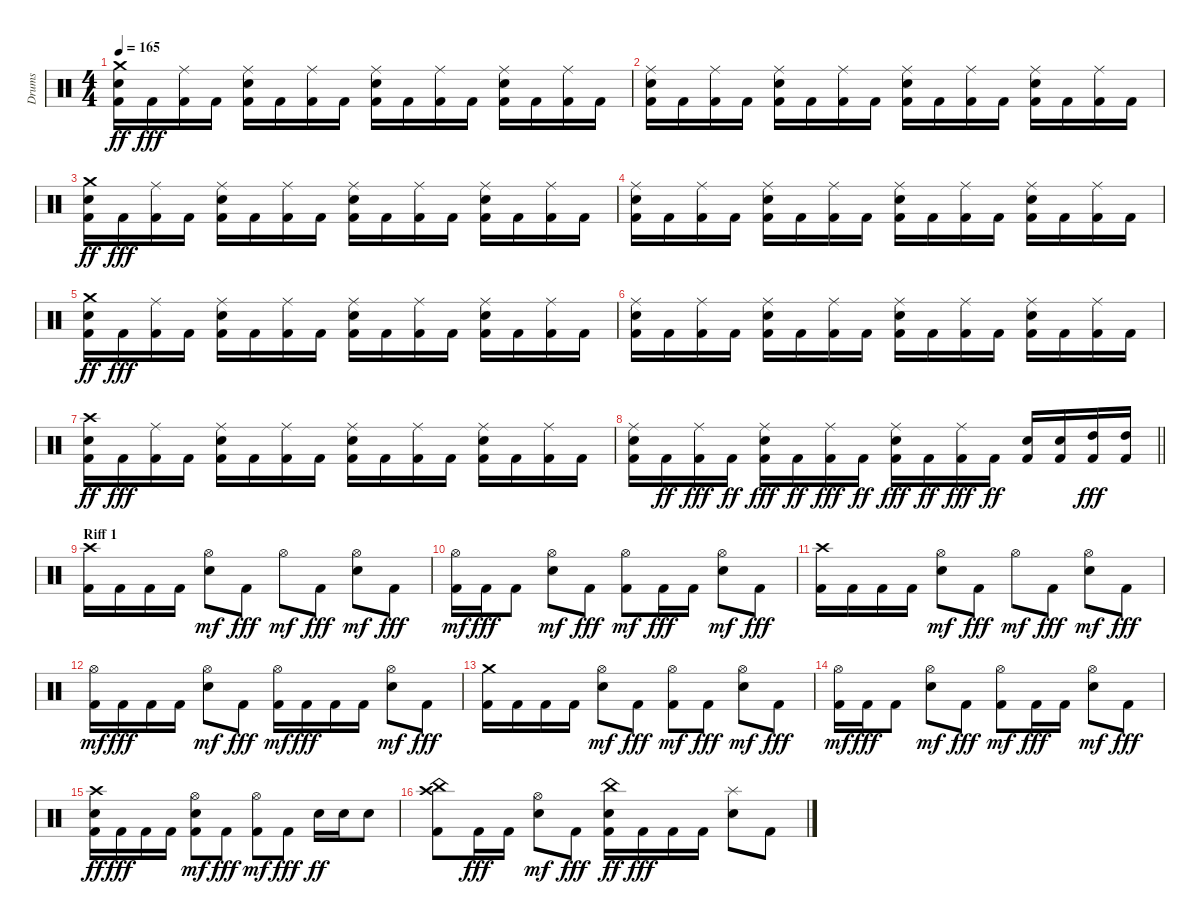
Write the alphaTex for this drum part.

\track ("Drums" "Drums") {instrument percussion}
\staff {score}
\articulation defaults
\ts (4 4)
\tempo 165
\clef neutral
\ks c
("Kick (hit) 2" "Snare (hit) 2" "Crash medium (hit)").16{dy ff} "Kick (hit) 2".16{dy fff} ("Kick (hit) 2" "Ride (middle)").16 "Kick (hit) 2".16 ("Kick (hit) 2" "Snare (hit) 2" "Ride (middle)").16 "Kick (hit) 2".16 ("Kick (hit) 2" "Ride (middle)").16 "Kick (hit) 2".16 ("Kick (hit) 2" "Snare (hit) 2" "Ride (middle)").16 "Kick (hit) 2".16 ("Kick (hit) 2" "Ride (middle)").16 "Kick (hit) 2".16 ("Kick (hit) 2" "Snare (hit) 2" "Ride (middle)").16 "Kick (hit) 2".16 ("Kick (hit) 2" "Ride (middle)").16 "Kick (hit) 2".16 |
("Kick (hit) 2" "Snare (hit) 2" "Ride (middle)").16 "Kick (hit) 2".16 ("Kick (hit) 2" "Ride (middle)").16 "Kick (hit) 2".16 ("Kick (hit) 2" "Snare (hit) 2" "Ride (middle)").16 "Kick (hit) 2".16 ("Kick (hit) 2" "Ride (middle)").16 "Kick (hit) 2".16 ("Kick (hit) 2" "Snare (hit) 2" "Ride (middle)").16 "Kick (hit) 2".16 ("Kick (hit) 2" "Ride (middle)").16 "Kick (hit) 2".16 ("Kick (hit) 2" "Snare (hit) 2" "Ride (middle)").16 "Kick (hit) 2".16 ("Kick (hit) 2" "Ride (middle)").16 "Kick (hit) 2".16 |
("Kick (hit) 2" "Snare (hit) 2" "Crash medium (hit)").16{dy ff} "Kick (hit) 2".16{dy fff} ("Kick (hit) 2" "Ride (middle)").16 "Kick (hit) 2".16 ("Kick (hit) 2" "Snare (hit) 2" "Ride (middle)").16 "Kick (hit) 2".16 ("Kick (hit) 2" "Ride (middle)").16 "Kick (hit) 2".16 ("Kick (hit) 2" "Snare (hit) 2" "Ride (middle)").16 "Kick (hit) 2".16 ("Kick (hit) 2" "Ride (middle)").16 "Kick (hit) 2".16 ("Kick (hit) 2" "Snare (hit) 2" "Ride (middle)").16 "Kick (hit) 2".16 ("Kick (hit) 2" "Ride (middle)").16 "Kick (hit) 2".16 |
("Kick (hit) 2" "Snare (hit) 2" "Ride (middle)").16 "Kick (hit) 2".16 ("Kick (hit) 2" "Ride (middle)").16 "Kick (hit) 2".16 ("Kick (hit) 2" "Snare (hit) 2" "Ride (middle)").16 "Kick (hit) 2".16 ("Kick (hit) 2" "Ride (middle)").16 "Kick (hit) 2".16 ("Kick (hit) 2" "Snare (hit) 2" "Ride (middle)").16 "Kick (hit) 2".16 ("Kick (hit) 2" "Ride (middle)").16 "Kick (hit) 2".16 ("Kick (hit) 2" "Snare (hit) 2" "Ride (middle)").16 "Kick (hit) 2".16 ("Kick (hit) 2" "Ride (middle)").16 "Kick (hit) 2".16 |
("Kick (hit) 2" "Snare (hit) 2" "Crash medium (hit)").16{dy ff} "Kick (hit) 2".16{dy fff} ("Kick (hit) 2" "Ride (middle)").16 "Kick (hit) 2".16 ("Kick (hit) 2" "Snare (hit) 2" "Ride (middle)").16 "Kick (hit) 2".16 ("Kick (hit) 2" "Ride (middle)").16 "Kick (hit) 2".16 ("Kick (hit) 2" "Snare (hit) 2" "Ride (middle)").16 "Kick (hit) 2".16 ("Kick (hit) 2" "Ride (middle)").16 "Kick (hit) 2".16 ("Kick (hit) 2" "Snare (hit) 2" "Ride (middle)").16 "Kick (hit) 2".16 ("Kick (hit) 2" "Ride (middle)").16 "Kick (hit) 2".16 |
("Kick (hit) 2" "Snare (hit) 2" "Ride (middle)").16 "Kick (hit) 2".16 ("Kick (hit) 2" "Ride (middle)").16 "Kick (hit) 2".16 ("Kick (hit) 2" "Snare (hit) 2" "Ride (middle)").16 "Kick (hit) 2".16 ("Kick (hit) 2" "Ride (middle)").16 "Kick (hit) 2".16 ("Kick (hit) 2" "Snare (hit) 2" "Ride (middle)").16 "Kick (hit) 2".16 ("Kick (hit) 2" "Ride (middle)").16 "Kick (hit) 2".16 ("Kick (hit) 2" "Snare (hit) 2" "Ride (middle)").16 "Kick (hit) 2".16 ("Kick (hit) 2" "Ride (middle)").16 "Kick (hit) 2".16 |
("Kick (hit) 2" "Snare (hit) 2" "Crash high (hit)").16{dy ff} "Kick (hit) 2".16{dy fff} ("Kick (hit) 2" "Ride (middle)").16 "Kick (hit) 2".16 ("Kick (hit) 2" "Snare (hit) 2" "Ride (middle)").16 "Kick (hit) 2".16 ("Kick (hit) 2" "Ride (middle)").16 "Kick (hit) 2".16 ("Kick (hit) 2" "Snare (hit) 2" "Ride (middle)").16 "Kick (hit) 2".16 ("Kick (hit) 2" "Ride (middle)").16 "Kick (hit) 2".16 ("Kick (hit) 2" "Snare (hit) 2" "Ride (middle)").16 "Kick (hit) 2".16 ("Kick (hit) 2" "Ride (middle)").16 "Kick (hit) 2".16 |
\barLineRight lightlight
("Kick (hit) 2" "Snare (hit) 2" "Ride (middle)").16 "Kick (hit) 2".16{dy ff} ("Kick (hit) 2" "Ride (middle)").16{dy fff} "Kick (hit) 2".16{dy ff} ("Kick (hit) 2" "Snare (hit) 2" "Ride (middle)").16{dy fff} "Kick (hit) 2".16{dy ff} ("Kick (hit) 2" "Ride (middle)").16{dy fff} "Kick (hit) 2".16{dy ff} ("Kick (hit) 2" "Snare (hit) 2" "Ride (middle)").16{dy fff} "Kick (hit) 2".16{dy ff} ("Kick (hit) 2" "Ride (middle)").16{dy fff} "Kick (hit) 2".16{dy ff} ("Kick (hit) 2" "Snare (hit) 2").16 ("Kick (hit) 2" "Snare (hit) 2").16 ("Kick (hit) 2" "High Tom (hit)").16{dy fff} ("Kick (hit) 2" "High Tom (hit)").16 |
\section ("" "Riff 1")
("Kick (hit) 2" "Crash high (hit)").16 "Kick (hit) 2".16 "Kick (hit) 2".16 "Kick (hit) 2".16 ("Snare (hit) 2" "Hi-Hat (open)").8{dy mf} "Kick (hit) 2".8{dy fff} "Hi-Hat (open)".8{dy mf} "Kick (hit) 2".8{dy fff} ("Snare (hit) 2" "Hi-Hat (open)").8{dy mf} "Kick (hit) 2".8{dy fff} |
("Kick (hit) 2" "Hi-Hat (open)").16{dy mf} "Kick (hit) 2".16{dy fff} "Kick (hit) 2".8 ("Snare (hit) 2" "Hi-Hat (open)").8{dy mf} "Kick (hit) 2".8{dy fff} ("Kick (hit) 2" "Hi-Hat (open)").8{dy mf} "Kick (hit) 2".16{dy fff} "Kick (hit) 2".16 ("Snare (hit) 2" "Hi-Hat (open)").8{dy mf} "Kick (hit) 2".8{dy fff} |
("Kick (hit) 2" "Crash high (hit)").16 "Kick (hit) 2".16 "Kick (hit) 2".16 "Kick (hit) 2".16 ("Snare (hit) 2" "Hi-Hat (open)").8{dy mf} "Kick (hit) 2".8{dy fff} "Hi-Hat (open)".8{dy mf} "Kick (hit) 2".8{dy fff} ("Snare (hit) 2" "Hi-Hat (open)").8{dy mf} "Kick (hit) 2".8{dy fff} |
("Kick (hit) 2" "Hi-Hat (open)").16{dy mf} "Kick (hit) 2".16{dy fff} "Kick (hit) 2".16 "Kick (hit) 2".16 ("Snare (hit) 2" "Hi-Hat (open)").8{dy mf} "Kick (hit) 2".8{dy fff} ("Kick (hit) 2" "Hi-Hat (open)").16{dy mf} "Kick (hit) 2".16{dy fff} "Kick (hit) 2".16 "Kick (hit) 2".16 ("Snare (hit) 2" "Hi-Hat (open)").8{dy mf} "Kick (hit) 2".8{dy fff} |
("Kick (hit) 2" "Crash medium (hit)").16 "Kick (hit) 2".16 "Kick (hit) 2".16 "Kick (hit) 2".16 ("Snare (hit) 2" "Hi-Hat (open)").8{dy mf} "Kick (hit) 2".8{dy fff} ("Kick (hit) 2" "Hi-Hat (open)").8{dy mf} "Kick (hit) 2".8{dy fff} ("Snare (hit) 2" "Hi-Hat (open)").8{dy mf} "Kick (hit) 2".8{dy fff} |
("Kick (hit) 2" "Hi-Hat (open)").16{dy mf} "Kick (hit) 2".16{dy fff} "Kick (hit) 2".8 ("Snare (hit) 2" "Hi-Hat (open)").8{dy mf} "Kick (hit) 2".8{dy fff} ("Kick (hit) 2" "Hi-Hat (open)").8{dy mf} "Kick (hit) 2".16{dy fff} "Kick (hit) 2".16 ("Snare (hit) 2" "Hi-Hat (open)").8{dy mf} "Kick (hit) 2".8{dy fff} |
("Kick (hit) 2" "Snare (hit) 2" "Crash high (hit)").16{dy ff} "Kick (hit) 2".16{dy fff} "Kick (hit) 2".16 "Kick (hit) 2".16 ("Kick (hit) 2" "Snare (hit) 2" "Hi-Hat (open)").8{dy mf} "Kick (hit) 2".8{dy fff} ("Kick (hit) 2" "Hi-Hat (open)").8{dy mf} "Kick (hit) 2".8{dy fff} "Snare (hit) 2".16{dy ff} "Snare (hit) 2".16 "Snare (hit) 2".8 |
("Kick (hit) 2" "Crash high (hit)" "China (hit)").8 "Kick (hit) 2".16{dy fff} "Kick (hit) 2".16 ("Snare (hit) 2" "Hi-Hat (open)").8{dy mf} "Kick (hit) 2".8{dy fff} ("Kick (hit) 2" "Snare (hit) 2" "China (hit)").16{dy ff} "Kick (hit) 2".16{dy fff} "Kick (hit) 2".16 "Kick (hit) 2".16 ("Snare (hit) 2" "Splash (hit)").8 "Kick (hit) 2".8
